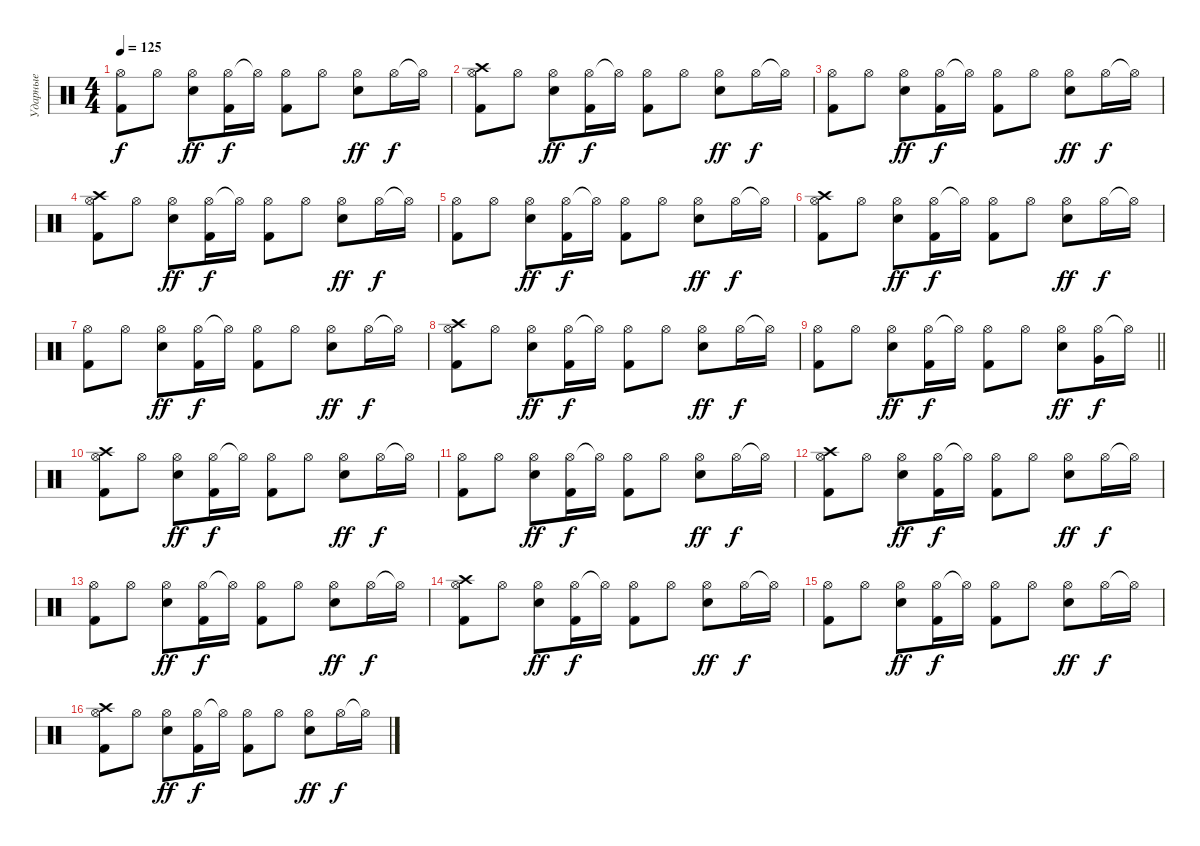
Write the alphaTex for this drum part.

\track ("Ударные" "Ударные") {instrument percussion}
\staff {score}
\articulation defaults
\ts (4 4)
\tempo 125
\clef neutral
\ks c
("Hi-Hat (open)" "Kick (hit) 2").8{dy f} "Hi-Hat (open)".8 ("Hi-Hat (open)" "Electric Snare (hit)").8{dy ff} ("Hi-Hat (open)" "Kick (hit) 2").16{dy f} "Hi-Hat (open)"{t}.16 ("Hi-Hat (open)" "Kick (hit) 2").8 "Hi-Hat (open)".8 ("Hi-Hat (open)" "Electric Snare (hit)").8{dy ff} "Hi-Hat (open)".16{dy f} "Hi-Hat (open)"{t}.16 |
("Crash high (hit)" "Hi-Hat (open)" "Kick (hit) 2").8 "Hi-Hat (open)".8 ("Hi-Hat (open)" "Electric Snare (hit)").8{dy ff} ("Hi-Hat (open)" "Kick (hit) 2").16{dy f} "Hi-Hat (open)"{t}.16 ("Hi-Hat (open)" "Kick (hit) 2").8 "Hi-Hat (open)".8 ("Hi-Hat (open)" "Electric Snare (hit)").8{dy ff} "Hi-Hat (open)".16{dy f} "Hi-Hat (open)"{t}.16 |
("Hi-Hat (open)" "Kick (hit) 2").8 "Hi-Hat (open)".8 ("Hi-Hat (open)" "Electric Snare (hit)").8{dy ff} ("Hi-Hat (open)" "Kick (hit) 2").16{dy f} "Hi-Hat (open)"{t}.16 ("Hi-Hat (open)" "Kick (hit) 2").8 "Hi-Hat (open)".8 ("Hi-Hat (open)" "Electric Snare (hit)").8{dy ff} "Hi-Hat (open)".16{dy f} "Hi-Hat (open)"{t}.16 |
("Crash high (hit)" "Hi-Hat (open)" "Kick (hit) 2").8 "Hi-Hat (open)".8 ("Hi-Hat (open)" "Electric Snare (hit)").8{dy ff} ("Hi-Hat (open)" "Kick (hit) 2").16{dy f} "Hi-Hat (open)"{t}.16 ("Hi-Hat (open)" "Kick (hit) 2").8 "Hi-Hat (open)".8 ("Hi-Hat (open)" "Electric Snare (hit)").8{dy ff} "Hi-Hat (open)".16{dy f} "Hi-Hat (open)"{t}.16 |
("Hi-Hat (open)" "Kick (hit) 2").8 "Hi-Hat (open)".8 ("Hi-Hat (open)" "Electric Snare (hit)").8{dy ff} ("Hi-Hat (open)" "Kick (hit) 2").16{dy f} "Hi-Hat (open)"{t}.16 ("Hi-Hat (open)" "Kick (hit) 2").8 "Hi-Hat (open)".8 ("Hi-Hat (open)" "Electric Snare (hit)").8{dy ff} "Hi-Hat (open)".16{dy f} "Hi-Hat (open)"{t}.16 |
("Crash high (hit)" "Hi-Hat (open)" "Kick (hit) 2").8 "Hi-Hat (open)".8 ("Hi-Hat (open)" "Electric Snare (hit)").8{dy ff} ("Hi-Hat (open)" "Kick (hit) 2").16{dy f} "Hi-Hat (open)"{t}.16 ("Hi-Hat (open)" "Kick (hit) 2").8 "Hi-Hat (open)".8 ("Hi-Hat (open)" "Electric Snare (hit)").8{dy ff} "Hi-Hat (open)".16{dy f} "Hi-Hat (open)"{t}.16 |
("Hi-Hat (open)" "Kick (hit) 2").8 "Hi-Hat (open)".8 ("Hi-Hat (open)" "Electric Snare (hit)").8{dy ff} ("Hi-Hat (open)" "Kick (hit) 2").16{dy f} "Hi-Hat (open)"{t}.16 ("Hi-Hat (open)" "Kick (hit) 2").8 "Hi-Hat (open)".8 ("Hi-Hat (open)" "Electric Snare (hit)").8{dy ff} "Hi-Hat (open)".16{dy f} "Hi-Hat (open)"{t}.16 |
("Crash high (hit)" "Hi-Hat (open)" "Kick (hit) 2").8 "Hi-Hat (open)".8 ("Hi-Hat (open)" "Electric Snare (hit)").8{dy ff} ("Hi-Hat (open)" "Kick (hit) 2").16{dy f} "Hi-Hat (open)"{t}.16 ("Hi-Hat (open)" "Kick (hit) 2").8 "Hi-Hat (open)".8 ("Hi-Hat (open)" "Electric Snare (hit)").8{dy ff} "Hi-Hat (open)".16{dy f} "Hi-Hat (open)"{t}.16 |
\barLineRight lightlight
("Hi-Hat (open)" "Kick (hit) 2").8 "Hi-Hat (open)".8 ("Hi-Hat (open)" "Electric Snare (hit)").8{dy ff} ("Hi-Hat (open)" "Kick (hit) 2").16{dy f} "Hi-Hat (open)"{t}.16 ("Hi-Hat (open)" "Kick (hit) 2").8 "Hi-Hat (open)".8 ("Hi-Hat (open)" "Electric Snare (hit)").8{dy ff} ("Hi-Hat (open)" "Very Low Tom (hit)").16{dy f} "Hi-Hat (open)"{t}.16 |
("Crash high (hit)" "Hi-Hat (open)" "Kick (hit) 2").8 "Hi-Hat (open)".8 ("Hi-Hat (open)" "Electric Snare (hit)").8{dy ff} ("Hi-Hat (open)" "Kick (hit) 2").16{dy f} "Hi-Hat (open)"{t}.16 ("Hi-Hat (open)" "Kick (hit) 2").8 "Hi-Hat (open)".8 ("Hi-Hat (open)" "Electric Snare (hit)").8{dy ff} "Hi-Hat (open)".16{dy f} "Hi-Hat (open)"{t}.16 |
("Hi-Hat (open)" "Kick (hit) 2").8 "Hi-Hat (open)".8 ("Hi-Hat (open)" "Electric Snare (hit)").8{dy ff} ("Hi-Hat (open)" "Kick (hit) 2").16{dy f} "Hi-Hat (open)"{t}.16 ("Hi-Hat (open)" "Kick (hit) 2").8 "Hi-Hat (open)".8 ("Hi-Hat (open)" "Electric Snare (hit)").8{dy ff} "Hi-Hat (open)".16{dy f} "Hi-Hat (open)"{t}.16 |
("Crash high (hit)" "Hi-Hat (open)" "Kick (hit) 2").8 "Hi-Hat (open)".8 ("Hi-Hat (open)" "Electric Snare (hit)").8{dy ff} ("Hi-Hat (open)" "Kick (hit) 2").16{dy f} "Hi-Hat (open)"{t}.16 ("Hi-Hat (open)" "Kick (hit) 2").8 "Hi-Hat (open)".8 ("Hi-Hat (open)" "Electric Snare (hit)").8{dy ff} "Hi-Hat (open)".16{dy f} "Hi-Hat (open)"{t}.16 |
("Hi-Hat (open)" "Kick (hit) 2").8 "Hi-Hat (open)".8 ("Hi-Hat (open)" "Electric Snare (hit)").8{dy ff} ("Hi-Hat (open)" "Kick (hit) 2").16{dy f} "Hi-Hat (open)"{t}.16 ("Hi-Hat (open)" "Kick (hit) 2").8 "Hi-Hat (open)".8 ("Hi-Hat (open)" "Electric Snare (hit)").8{dy ff} "Hi-Hat (open)".16{dy f} "Hi-Hat (open)"{t}.16 |
("Crash high (hit)" "Hi-Hat (open)" "Kick (hit) 2").8 "Hi-Hat (open)".8 ("Hi-Hat (open)" "Electric Snare (hit)").8{dy ff} ("Hi-Hat (open)" "Kick (hit) 2").16{dy f} "Hi-Hat (open)"{t}.16 ("Hi-Hat (open)" "Kick (hit) 2").8 "Hi-Hat (open)".8 ("Hi-Hat (open)" "Electric Snare (hit)").8{dy ff} "Hi-Hat (open)".16{dy f} "Hi-Hat (open)"{t}.16 |
("Hi-Hat (open)" "Kick (hit) 2").8 "Hi-Hat (open)".8 ("Hi-Hat (open)" "Electric Snare (hit)").8{dy ff} ("Hi-Hat (open)" "Kick (hit) 2").16{dy f} "Hi-Hat (open)"{t}.16 ("Hi-Hat (open)" "Kick (hit) 2").8 "Hi-Hat (open)".8 ("Hi-Hat (open)" "Electric Snare (hit)").8{dy ff} "Hi-Hat (open)".16{dy f} "Hi-Hat (open)"{t}.16 |
("Crash high (hit)" "Hi-Hat (open)" "Kick (hit) 2").8 "Hi-Hat (open)".8 ("Hi-Hat (open)" "Electric Snare (hit)").8{dy ff} ("Hi-Hat (open)" "Kick (hit) 2").16{dy f} "Hi-Hat (open)"{t}.16 ("Hi-Hat (open)" "Kick (hit) 2").8 "Hi-Hat (open)".8 ("Hi-Hat (open)" "Electric Snare (hit)").8{dy ff} "Hi-Hat (open)".16{dy f} "Hi-Hat (open)"{t}.16
